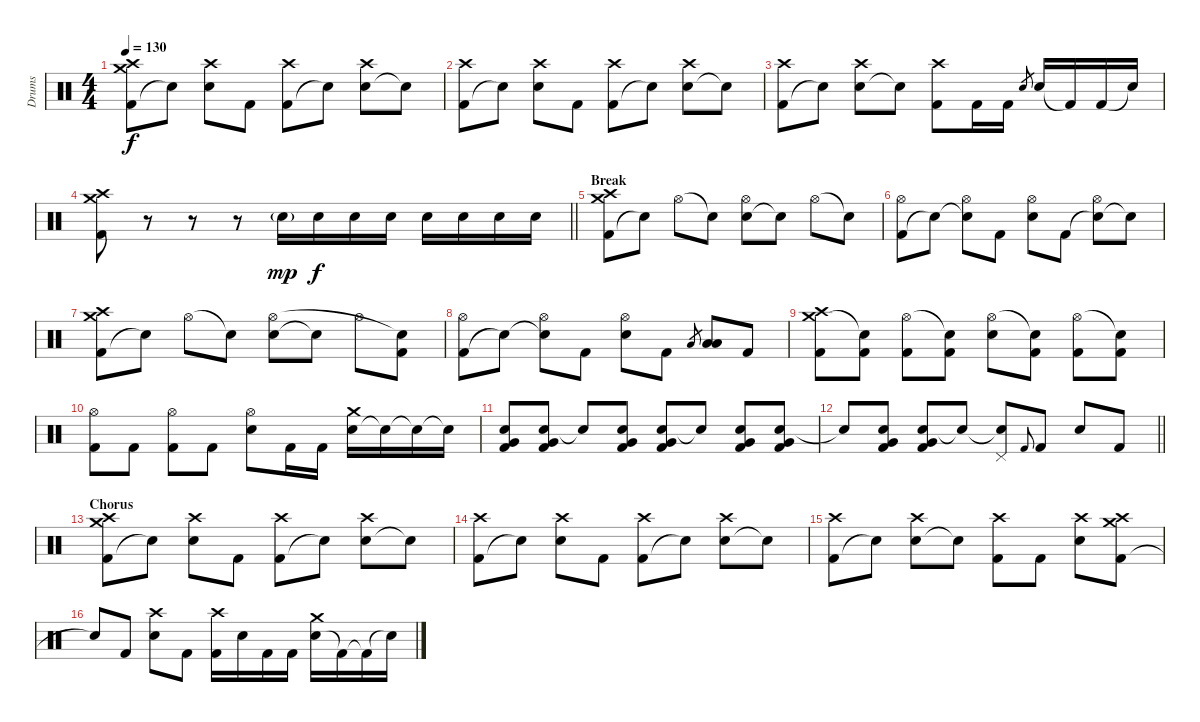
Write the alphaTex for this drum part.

\track ("Drums" "Drums") {instrument percussion}
\staff {score}
\articulation defaults
\ts (4 4)
\tempo 130
\clef neutral
\ks c
("Kick (hit) 2" "Crash medium (hit)" "Crash high (hit)").8{dy f} "Snare (hit)"{t}.8 ("Electric Snare (hit)" "Crash high (hit)").8 "Kick (hit) 2".8 ("Kick (hit) 2" "Crash high (hit)").8 "Snare (hit)"{t}.8 ("Electric Snare (hit)" "Crash high (hit)").8 "Snare (hit)"{t}.8 |
("Kick (hit) 2" "Crash high (hit)").8 "Snare (hit)"{t}.8 ("Electric Snare (hit)" "Crash high (hit)").8 "Kick (hit) 2".8 ("Kick (hit) 2" "Crash high (hit)").8 "Snare (hit)"{t}.8 ("Electric Snare (hit)" "Crash high (hit)").8 "Snare (hit)"{t}.8 |
("Kick (hit) 2" "Crash high (hit)").8 "Snare (hit)"{t}.8 ("Electric Snare (hit)" "Crash high (hit)").8 "Snare (hit)"{t}.8 ("Kick (hit) 2" "Crash high (hit)").8 "Kick (hit) 2".16 "Kick (hit) 2".16 "Electric Snare (hit)".8{gr} "Electric Snare (hit)".16 "Kick (hit) 2"{t}.16 "Kick (hit) 2".16 "Snare (hit)"{t}.16 |
\barLineRight lightlight
("Kick (hit) 2" "Crash medium (hit)" "Crash high (hit)").8 r.8 r.8 r.8 "Electric Snare (hit)"{g}.16{dy mp} "Electric Snare (hit)".16{dy f} "Electric Snare (hit)".16 "Electric Snare (hit)".16 "Electric Snare (hit)".16 "Electric Snare (hit)".16 "Electric Snare (hit)".16 "Electric Snare (hit)".16 |
\section ("" "Break")
("Kick (hit) 2" "Crash medium (hit)" "Crash high (hit)").8 "Snare (hit)"{t}.8 "Hi-Hat (open)".8 "Snare (hit)"{t}.8 ("Electric Snare (hit)" "Hi-Hat (open)").8 "Snare (hit)"{t}.8 "Hi-Hat (open)".8 "Snare (hit)"{t}.8 |
("Kick (hit) 2" "Hi-Hat (open)").8 "Snare (hit)"{t}.8 ("Snare (hit)"{t} "Hi-Hat (open)").8 "Kick (hit) 2".8 ("Electric Snare (hit)" "Hi-Hat (open)").8 "Kick (hit) 2".8 ("Snare (hit)"{t} "Hi-Hat (open)").8 "Snare (hit)"{t}.8 |
("Kick (hit) 2" "Crash medium (hit)" "Crash high (hit)").8 "Snare (hit)"{t}.8 "Hi-Hat (open)".8 "Snare (hit)"{t}.8 ("Electric Snare (hit)" "Hi-Hat (open)").8 "Snare (hit)"{t}.8 "Hi-Hat (open)".8 ("Kick (hit) 2" "Snare (hit)"{t}).8 |
("Kick (hit) 2" "Hi-Hat (open)").8 "Snare (hit)"{t}.8 ("Snare (hit)"{t} "Hi-Hat (open)").8 "Kick (hit) 2".8 ("Electric Snare (hit)" "Hi-Hat (open)").8 "Kick (hit) 2".8 "Low Tom (hit)".8{gr} ("Low Tom (hit)" "Low Floor Tom (hit)").8 "Kick (hit) 2".8 |
("Kick (hit) 2" "Crash medium (hit)" "Crash high (hit)").8 ("Kick (hit) 2" "Snare (hit)"{t}).8 ("Kick (hit) 2" "Hi-Hat (open)").8 ("Kick (hit) 2" "Snare (hit)"{t}).8 ("Electric Snare (hit)" "Hi-Hat (open)").8 ("Kick (hit) 2" "Snare (hit)"{t}).8 ("Kick (hit) 2" "Hi-Hat (open)").8 ("Kick (hit) 2" "Snare (hit)"{t}).8 |
("Kick (hit) 2" "Hi-Hat (open)").8 "Kick (hit) 2".8 ("Kick (hit) 2" "Hi-Hat (open)").8 "Kick (hit) 2".8 ("Electric Snare (hit)" "Hi-Hat (open)").8 "Kick (hit) 2".16 "Kick (hit) 2".16 ("Electric Snare (hit)" "Crash medium (hit)").16 "Snare (hit)"{t}.16 "Snare (hit)"{t}.16 "Snare (hit)"{t}.16 |
("Electric Snare (hit)" "Very Low Tom (hit)" "Kick (hit) 2").8 ("Electric Snare (hit)" "Very Low Tom (hit)" "Kick (hit) 2").8 "Snare (hit)"{t}.8 ("Electric Snare (hit)" "Very Low Tom (hit)" "Kick (hit) 2").8 ("Electric Snare (hit)" "Very Low Tom (hit)" "Kick (hit) 2").8 "Snare (hit)"{t}.8 ("Electric Snare (hit)" "Very Low Tom (hit)" "Kick (hit) 2").8 ("Electric Snare (hit)" "Very Low Tom (hit)" "Kick (hit) 2").8 |
\barLineRight lightlight "Snare (hit)"{t}.8
("Electric Snare (hit)" "Very Low Tom (hit)" "Kick (hit) 2").8 ("Electric Snare (hit)" "Very Low Tom (hit)" "Kick (hit) 2").8 "Snare (hit)"{t}.8 ("Snare (hit)"{t} "Pedal Hi-Hat (hit)").8 "Kick (hit) 2".8{gr onbeat} "Kick (hit) 2".8 "Electric Snare (hit)".8 "Kick (hit) 2".8 |
\section ("" "Chorus")
("Kick (hit) 2" "Crash medium (hit)" "Crash high (hit)").8 "Snare (hit)"{t}.8 ("Electric Snare (hit)" "Crash high (hit)").8 "Kick (hit) 2".8 ("Kick (hit) 2" "Crash high (hit)").8 "Snare (hit)"{t}.8 ("Electric Snare (hit)" "Crash high (hit)").8 "Snare (hit)"{t}.8 |
("Kick (hit) 2" "Crash high (hit)").8 "Snare (hit)"{t}.8 ("Electric Snare (hit)" "Crash high (hit)").8 "Kick (hit) 2".8 ("Kick (hit) 2" "Crash high (hit)").8 "Snare (hit)"{t}.8 ("Electric Snare (hit)" "Crash high (hit)").8 "Snare (hit)"{t}.8 |
("Kick (hit) 2" "Crash high (hit)").8 "Snare (hit)"{t}.8 ("Electric Snare (hit)" "Crash high (hit)").8 "Snare (hit)"{t}.8 ("Kick (hit) 2" "Crash high (hit)").8 "Kick (hit) 2".8 ("Electric Snare (hit)" "Crash high (hit)").8 ("Kick (hit) 2" "Crash medium (hit)" "Crash high (hit)").8 |
"Snare (hit)"{t}.8 "Kick (hit) 2".8 ("Electric Snare (hit)" "Crash high (hit)").8 "Kick (hit) 2".8 ("Kick (hit) 2" "Crash high (hit)").16 "Electric Snare (hit)".16 "Kick (hit) 2".16 "Kick (hit) 2".16 ("Electric Snare (hit)" "Crash medium (hit)").16 "Kick (hit) 2"{t}.16 "Kick (hit) 2"{t}.16 "Snare (hit)"{t}.16
